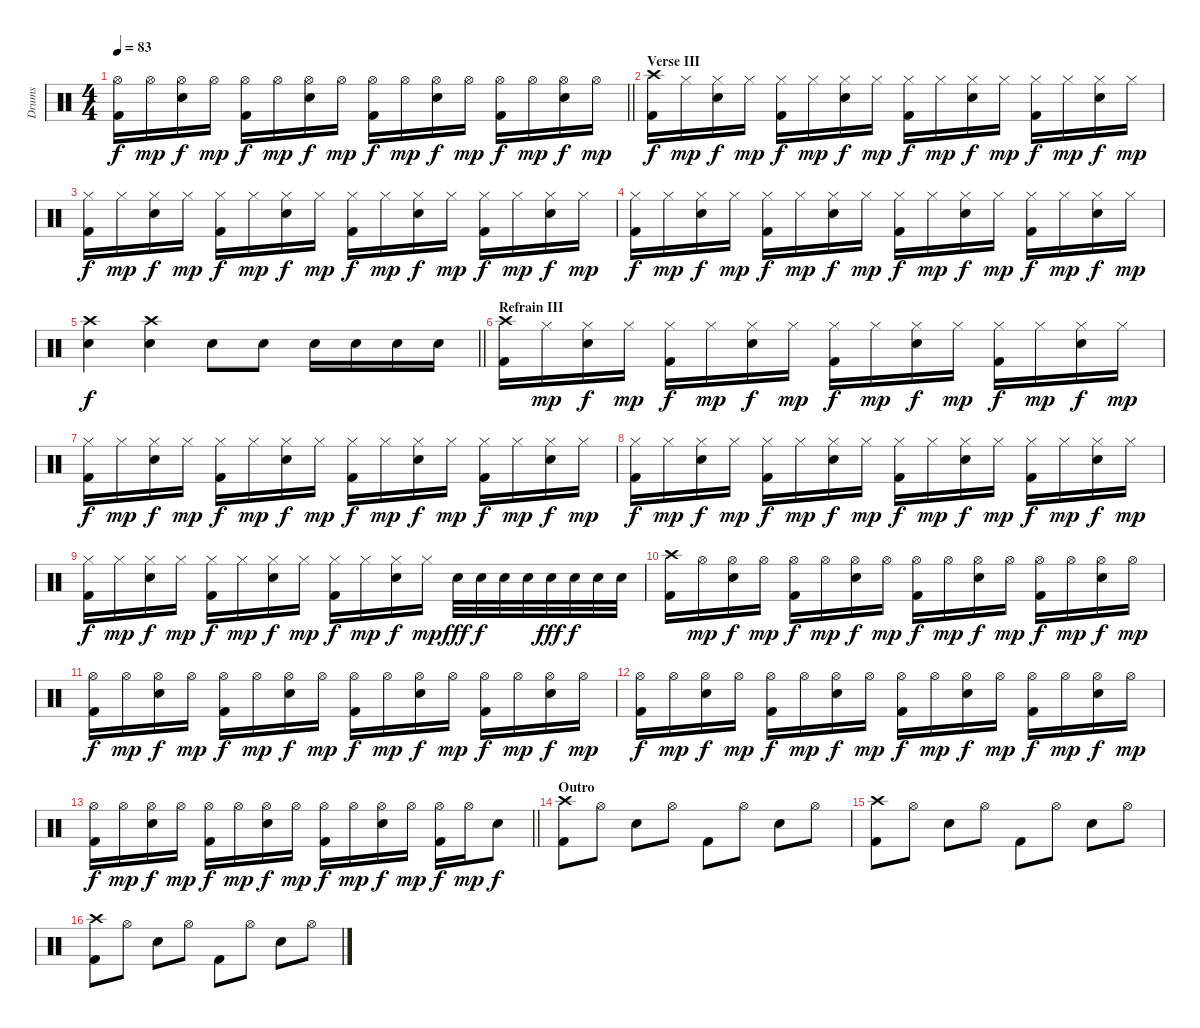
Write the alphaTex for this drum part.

\track ("Drums" "Drums") {instrument percussion}
\staff {score}
\articulation defaults
\ts (4 4)
\tempo 83
\clef neutral
\barLineRight lightlight
\ks c
("Hi-Hat (open)" "Kick (hit) 2").16{dy f} "Hi-Hat (open)".16{dy mp} ("Hi-Hat (open)" "Snare (hit) 2").16{dy f} "Hi-Hat (open)".16{dy mp} ("Hi-Hat (open)" "Kick (hit) 2").16{dy f} "Hi-Hat (open)".16{dy mp} ("Hi-Hat (open)" "Snare (hit) 2").16{dy f} "Hi-Hat (open)".16{dy mp} ("Hi-Hat (open)" "Kick (hit) 2").16{dy f} "Hi-Hat (open)".16{dy mp} ("Hi-Hat (open)" "Snare (hit) 2").16{dy f} "Hi-Hat (open)".16{dy mp} ("Hi-Hat (open)" "Kick (hit) 2").16{dy f} "Hi-Hat (open)".16{dy mp} ("Hi-Hat (open)" "Snare (hit) 2").16{dy f} "Hi-Hat (open)".16{dy mp} |
\section ("" "Verse III")
("Crash high (hit)" "Kick (hit) 2").16{dy f} "Hi-Hat (closed)".16{dy mp} ("Hi-Hat (closed)" "Snare (hit) 2").16{dy f} "Hi-Hat (closed)".16{dy mp} ("Hi-Hat (closed)" "Kick (hit) 2").16{dy f} "Hi-Hat (closed)".16{dy mp} ("Hi-Hat (closed)" "Snare (hit) 2").16{dy f} "Hi-Hat (closed)".16{dy mp} ("Hi-Hat (closed)" "Kick (hit) 2").16{dy f} "Hi-Hat (closed)".16{dy mp} ("Hi-Hat (closed)" "Snare (hit) 2").16{dy f} "Hi-Hat (closed)".16{dy mp} ("Hi-Hat (closed)" "Kick (hit) 2").16{dy f} "Hi-Hat (closed)".16{dy mp} ("Hi-Hat (closed)" "Snare (hit) 2").16{dy f} "Hi-Hat (closed)".16{dy mp} |
("Hi-Hat (closed)" "Kick (hit) 2").16{dy f} "Hi-Hat (closed)".16{dy mp} ("Hi-Hat (closed)" "Snare (hit) 2").16{dy f} "Hi-Hat (closed)".16{dy mp} ("Hi-Hat (closed)" "Kick (hit) 2").16{dy f} "Hi-Hat (closed)".16{dy mp} ("Hi-Hat (closed)" "Snare (hit) 2").16{dy f} "Hi-Hat (closed)".16{dy mp} ("Hi-Hat (closed)" "Kick (hit) 2").16{dy f} "Hi-Hat (closed)".16{dy mp} ("Hi-Hat (closed)" "Snare (hit) 2").16{dy f} "Hi-Hat (closed)".16{dy mp} ("Hi-Hat (closed)" "Kick (hit) 2").16{dy f} "Hi-Hat (closed)".16{dy mp} ("Hi-Hat (closed)" "Snare (hit) 2").16{dy f} "Hi-Hat (closed)".16{dy mp} |
("Hi-Hat (closed)" "Kick (hit) 2").16{dy f} "Hi-Hat (closed)".16{dy mp} ("Hi-Hat (closed)" "Snare (hit) 2").16{dy f} "Hi-Hat (closed)".16{dy mp} ("Hi-Hat (closed)" "Kick (hit) 2").16{dy f} "Hi-Hat (closed)".16{dy mp} ("Hi-Hat (closed)" "Snare (hit) 2").16{dy f} "Hi-Hat (closed)".16{dy mp} ("Hi-Hat (closed)" "Kick (hit) 2").16{dy f} "Hi-Hat (closed)".16{dy mp} ("Hi-Hat (closed)" "Snare (hit) 2").16{dy f} "Hi-Hat (closed)".16{dy mp} ("Hi-Hat (closed)" "Kick (hit) 2").16{dy f} "Hi-Hat (closed)".16{dy mp} ("Hi-Hat (closed)" "Snare (hit) 2").16{dy f} "Hi-Hat (closed)".16{dy mp} |
\barLineRight lightlight
("Crash high (hit)" "Snare (hit) 2").4{dy f} ("Crash high (hit)" "Snare (hit) 2").4 "Snare (hit) 2".8 "Snare (hit) 2".8 "Snare (hit) 2".16 "Snare (hit) 2".16 "Snare (hit) 2".16 "Snare (hit) 2".16 |
\section ("" "Refrain III")
("Crash high (hit)" "Kick (hit) 2").16 "Hi-Hat (closed)".16{dy mp} ("Hi-Hat (closed)" "Snare (hit) 2").16{dy f} "Hi-Hat (closed)".16{dy mp} ("Hi-Hat (closed)" "Kick (hit) 2").16{dy f} "Hi-Hat (closed)".16{dy mp} ("Hi-Hat (closed)" "Snare (hit) 2").16{dy f} "Hi-Hat (closed)".16{dy mp} ("Hi-Hat (closed)" "Kick (hit) 2").16{dy f} "Hi-Hat (closed)".16{dy mp} ("Hi-Hat (closed)" "Snare (hit) 2").16{dy f} "Hi-Hat (closed)".16{dy mp} ("Hi-Hat (closed)" "Kick (hit) 2").16{dy f} "Hi-Hat (closed)".16{dy mp} ("Hi-Hat (closed)" "Snare (hit) 2").16{dy f} "Hi-Hat (closed)".16{dy mp} |
("Hi-Hat (closed)" "Kick (hit) 2").16{dy f} "Hi-Hat (closed)".16{dy mp} ("Hi-Hat (closed)" "Snare (hit) 2").16{dy f} "Hi-Hat (closed)".16{dy mp} ("Hi-Hat (closed)" "Kick (hit) 2").16{dy f} "Hi-Hat (closed)".16{dy mp} ("Hi-Hat (closed)" "Snare (hit) 2").16{dy f} "Hi-Hat (closed)".16{dy mp} ("Hi-Hat (closed)" "Kick (hit) 2").16{dy f} "Hi-Hat (closed)".16{dy mp} ("Hi-Hat (closed)" "Snare (hit) 2").16{dy f} "Hi-Hat (closed)".16{dy mp} ("Hi-Hat (closed)" "Kick (hit) 2").16{dy f} "Hi-Hat (closed)".16{dy mp} ("Hi-Hat (closed)" "Snare (hit) 2").16{dy f} "Hi-Hat (closed)".16{dy mp} |
("Hi-Hat (closed)" "Kick (hit) 2").16{dy f} "Hi-Hat (closed)".16{dy mp} ("Hi-Hat (closed)" "Snare (hit) 2").16{dy f} "Hi-Hat (closed)".16{dy mp} ("Hi-Hat (closed)" "Kick (hit) 2").16{dy f} "Hi-Hat (closed)".16{dy mp} ("Hi-Hat (closed)" "Snare (hit) 2").16{dy f} "Hi-Hat (closed)".16{dy mp} ("Hi-Hat (closed)" "Kick (hit) 2").16{dy f} "Hi-Hat (closed)".16{dy mp} ("Hi-Hat (closed)" "Snare (hit) 2").16{dy f} "Hi-Hat (closed)".16{dy mp} ("Hi-Hat (closed)" "Kick (hit) 2").16{dy f} "Hi-Hat (closed)".16{dy mp} ("Hi-Hat (closed)" "Snare (hit) 2").16{dy f} "Hi-Hat (closed)".16{dy mp} |
("Hi-Hat (closed)" "Kick (hit) 2").16{dy f} "Hi-Hat (closed)".16{dy mp} ("Hi-Hat (closed)" "Snare (hit) 2").16{dy f} "Hi-Hat (closed)".16{dy mp} ("Hi-Hat (closed)" "Kick (hit) 2").16{dy f} "Hi-Hat (closed)".16{dy mp} ("Hi-Hat (closed)" "Snare (hit) 2").16{dy f} "Hi-Hat (closed)".16{dy mp} ("Hi-Hat (closed)" "Kick (hit) 2").16{dy f} "Hi-Hat (closed)".16{dy mp} ("Hi-Hat (closed)" "Snare (hit) 2").16{dy f} "Hi-Hat (closed)".16{dy mp} "Snare (hit) 2".32{dy fff} "Snare (hit) 2".32{dy f} "Snare (hit) 2".32 "Snare (hit) 2".32 "Snare (hit) 2".32{dy fff} "Snare (hit) 2".32{dy f} "Snare (hit) 2".32 "Snare (hit) 2".32 |
("Crash high (hit)" "Kick (hit) 2").16 "Hi-Hat (open)".16{dy mp} ("Hi-Hat (open)" "Snare (hit) 2").16{dy f} "Hi-Hat (open)".16{dy mp} ("Hi-Hat (open)" "Kick (hit) 2").16{dy f} "Hi-Hat (open)".16{dy mp} ("Hi-Hat (open)" "Snare (hit) 2").16{dy f} "Hi-Hat (open)".16{dy mp} ("Hi-Hat (open)" "Kick (hit) 2").16{dy f} "Hi-Hat (open)".16{dy mp} ("Hi-Hat (open)" "Snare (hit) 2").16{dy f} "Hi-Hat (open)".16{dy mp} ("Hi-Hat (open)" "Kick (hit) 2").16{dy f} "Hi-Hat (open)".16{dy mp} ("Hi-Hat (open)" "Snare (hit) 2").16{dy f} "Hi-Hat (open)".16{dy mp} |
("Hi-Hat (open)" "Kick (hit) 2").16{dy f} "Hi-Hat (open)".16{dy mp} ("Hi-Hat (open)" "Snare (hit) 2").16{dy f} "Hi-Hat (open)".16{dy mp} ("Hi-Hat (open)" "Kick (hit) 2").16{dy f} "Hi-Hat (open)".16{dy mp} ("Hi-Hat (open)" "Snare (hit) 2").16{dy f} "Hi-Hat (open)".16{dy mp} ("Hi-Hat (open)" "Kick (hit) 2").16{dy f} "Hi-Hat (open)".16{dy mp} ("Hi-Hat (open)" "Snare (hit) 2").16{dy f} "Hi-Hat (open)".16{dy mp} ("Hi-Hat (open)" "Kick (hit) 2").16{dy f} "Hi-Hat (open)".16{dy mp} ("Hi-Hat (open)" "Snare (hit) 2").16{dy f} "Hi-Hat (open)".16{dy mp} |
("Hi-Hat (open)" "Kick (hit) 2").16{dy f} "Hi-Hat (open)".16{dy mp} ("Hi-Hat (open)" "Snare (hit) 2").16{dy f} "Hi-Hat (open)".16{dy mp} ("Hi-Hat (open)" "Kick (hit) 2").16{dy f} "Hi-Hat (open)".16{dy mp} ("Hi-Hat (open)" "Snare (hit) 2").16{dy f} "Hi-Hat (open)".16{dy mp} ("Hi-Hat (open)" "Kick (hit) 2").16{dy f} "Hi-Hat (open)".16{dy mp} ("Hi-Hat (open)" "Snare (hit) 2").16{dy f} "Hi-Hat (open)".16{dy mp} ("Hi-Hat (open)" "Kick (hit) 2").16{dy f} "Hi-Hat (open)".16{dy mp} ("Hi-Hat (open)" "Snare (hit) 2").16{dy f} "Hi-Hat (open)".16{dy mp} |
\barLineRight lightlight
("Hi-Hat (open)" "Kick (hit) 2").16{dy f} "Hi-Hat (open)".16{dy mp} ("Hi-Hat (open)" "Snare (hit) 2").16{dy f} "Hi-Hat (open)".16{dy mp} ("Hi-Hat (open)" "Kick (hit) 2").16{dy f} "Hi-Hat (open)".16{dy mp} ("Hi-Hat (open)" "Snare (hit) 2").16{dy f} "Hi-Hat (open)".16{dy mp} ("Hi-Hat (open)" "Kick (hit) 2").16{dy f} "Hi-Hat (open)".16{dy mp} ("Hi-Hat (open)" "Snare (hit) 2").16{dy f} "Hi-Hat (open)".16{dy mp} ("Hi-Hat (open)" "Kick (hit) 2").16{dy f} "Hi-Hat (open)".16{dy mp} "Snare (hit) 2".8{dy f} |
\section ("" "Outro")
("Crash high (hit)" "Kick (hit) 2").8 "Hi-Hat (open)".8 "Snare (hit) 2".8 "Hi-Hat (open)".8 "Kick (hit) 2".8 "Hi-Hat (open)".8 "Snare (hit) 2".8 "Hi-Hat (open)".8 |
("Crash high (hit)" "Kick (hit) 2").8 "Hi-Hat (open)".8 "Snare (hit) 2".8 "Hi-Hat (open)".8 "Kick (hit) 2".8 "Hi-Hat (open)".8 "Snare (hit) 2".8 "Hi-Hat (open)".8 |
("Crash high (hit)" "Kick (hit) 2").8 "Hi-Hat (open)".8 "Snare (hit) 2".8 "Hi-Hat (open)".8 "Kick (hit) 2".8 "Hi-Hat (open)".8 "Snare (hit) 2".8 "Hi-Hat (open)".8
